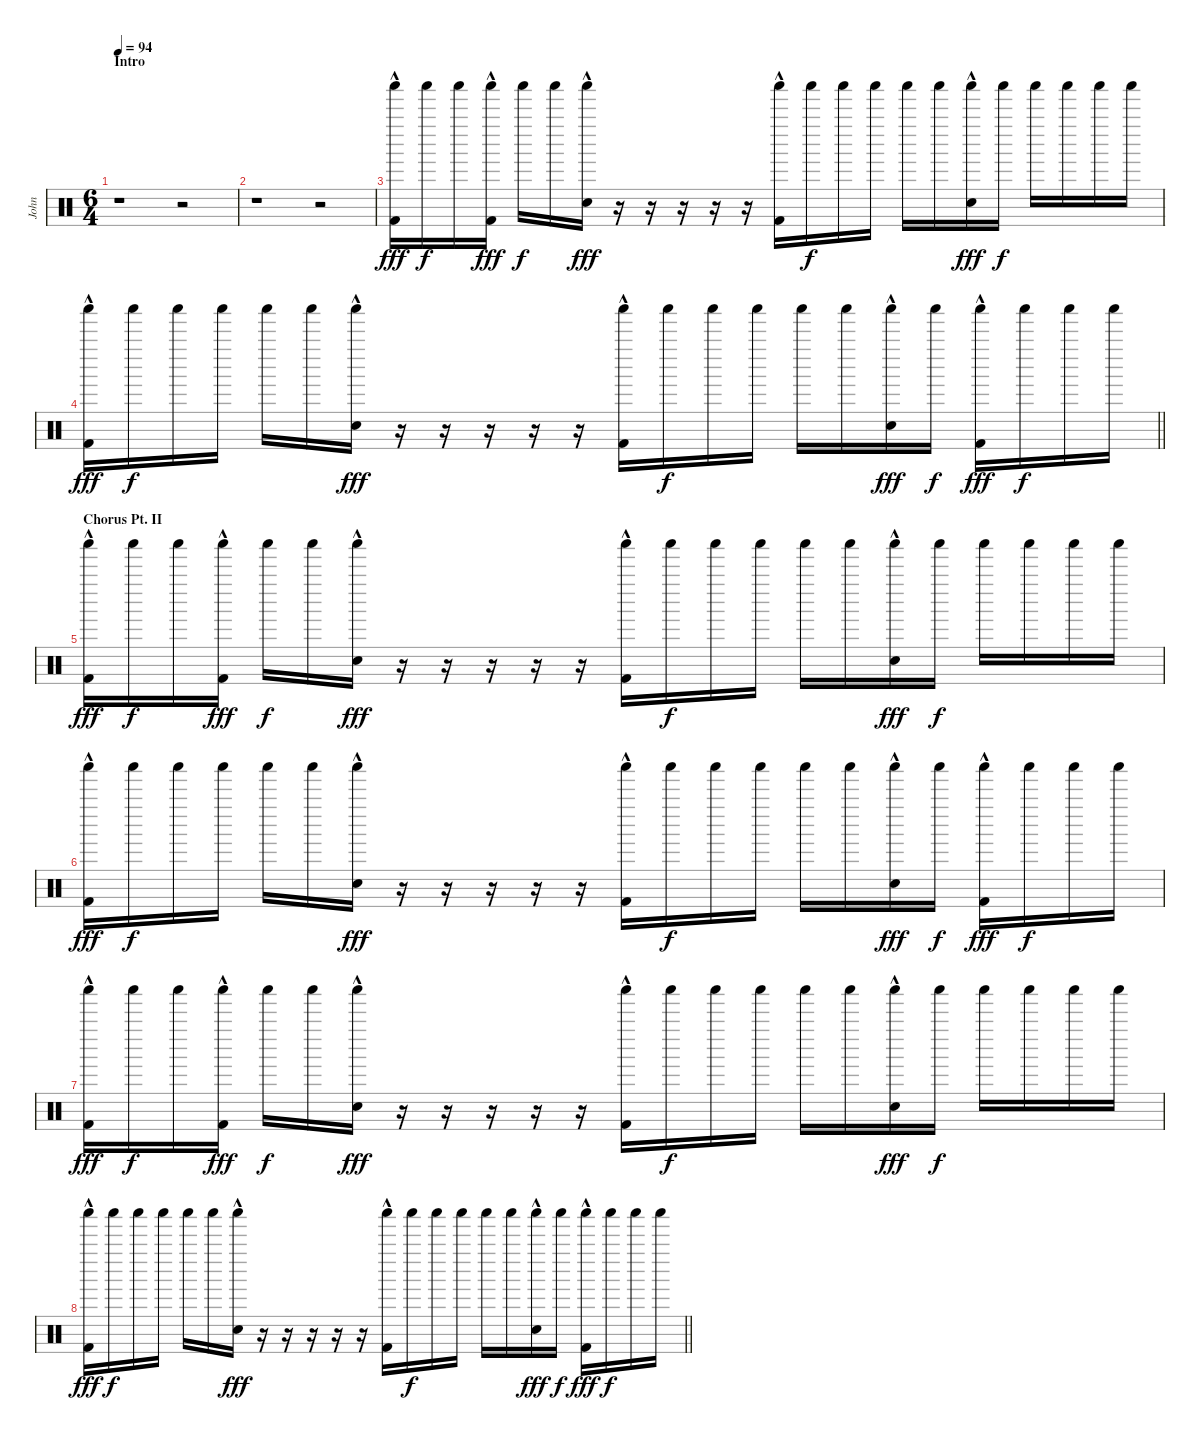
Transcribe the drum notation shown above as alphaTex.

\track ("John" "John") {instrument percussion}
\staff {score}
\articulation defaults
\ts (6 4)
\section ("" "Intro")
\tempo 94
\clef neutral
\ks c
r.1{dy fff} r.2 |
r.1 r.2 |
("Shaker (hit)" "Kick (hit) 2"{hac}).16 "Shaker (hit)".16{dy f} "Shaker (hit)".16 ("Shaker (hit)" "Kick (hit) 2"{hac}).16{dy fff} "Shaker (hit)".16{dy f} "Shaker (hit)".16 ("Shaker (hit)" "Snare (hit) 2"{hac}).16{dy fff} r.16 r.16 r.16 r.16 r.16 ("Shaker (hit)" "Kick (hit) 2"{hac}).16 "Shaker (hit)".16{dy f} "Shaker (hit)".16 "Shaker (hit)".16 "Shaker (hit)".16 "Shaker (hit)".16 ("Shaker (hit)" "Snare (hit) 2"{hac}).16{dy fff} "Shaker (hit)".16{dy f} "Shaker (hit)".16 "Shaker (hit)".16 "Shaker (hit)".16 "Shaker (hit)".16 |
\barLineRight lightlight
("Shaker (hit)" "Kick (hit) 2"{hac}).16{dy fff} "Shaker (hit)".16{dy f} "Shaker (hit)".16 "Shaker (hit)".16 "Shaker (hit)".16 "Shaker (hit)".16 ("Shaker (hit)" "Snare (hit) 2"{hac}).16{dy fff} r.16 r.16 r.16 r.16 r.16 ("Shaker (hit)" "Kick (hit) 2"{hac}).16 "Shaker (hit)".16{dy f} "Shaker (hit)".16 "Shaker (hit)".16 "Shaker (hit)".16 "Shaker (hit)".16 ("Shaker (hit)" "Snare (hit) 2"{hac}).16{dy fff} "Shaker (hit)".16{dy f} ("Shaker (hit)" "Kick (hit) 2"{hac}).16{dy fff} "Shaker (hit)".16{dy f} "Shaker (hit)".16 "Shaker (hit)".16 |
\section ("" "Chorus Pt. II")
("Shaker (hit)" "Kick (hit) 2"{hac}).16{dy fff} "Shaker (hit)".16{dy f} "Shaker (hit)".16 ("Shaker (hit)" "Kick (hit) 2"{hac}).16{dy fff} "Shaker (hit)".16{dy f} "Shaker (hit)".16 ("Shaker (hit)" "Snare (hit) 2"{hac}).16{dy fff} r.16 r.16 r.16 r.16 r.16 ("Shaker (hit)" "Kick (hit) 2"{hac}).16 "Shaker (hit)".16{dy f} "Shaker (hit)".16 "Shaker (hit)".16 "Shaker (hit)".16 "Shaker (hit)".16 ("Shaker (hit)" "Snare (hit) 2"{hac}).16{dy fff} "Shaker (hit)".16{dy f} "Shaker (hit)".16 "Shaker (hit)".16 "Shaker (hit)".16 "Shaker (hit)".16 |
("Shaker (hit)" "Kick (hit) 2"{hac}).16{dy fff} "Shaker (hit)".16{dy f} "Shaker (hit)".16 "Shaker (hit)".16 "Shaker (hit)".16 "Shaker (hit)".16 ("Shaker (hit)" "Snare (hit) 2"{hac}).16{dy fff} r.16 r.16 r.16 r.16 r.16 ("Shaker (hit)" "Kick (hit) 2"{hac}).16 "Shaker (hit)".16{dy f} "Shaker (hit)".16 "Shaker (hit)".16 "Shaker (hit)".16 "Shaker (hit)".16 ("Shaker (hit)" "Snare (hit) 2"{hac}).16{dy fff} "Shaker (hit)".16{dy f} ("Shaker (hit)" "Kick (hit) 2"{hac}).16{dy fff} "Shaker (hit)".16{dy f} "Shaker (hit)".16 "Shaker (hit)".16 |
("Shaker (hit)" "Kick (hit) 2"{hac}).16{dy fff} "Shaker (hit)".16{dy f} "Shaker (hit)".16 ("Shaker (hit)" "Kick (hit) 2"{hac}).16{dy fff} "Shaker (hit)".16{dy f} "Shaker (hit)".16 ("Shaker (hit)" "Snare (hit) 2"{hac}).16{dy fff} r.16 r.16 r.16 r.16 r.16 ("Shaker (hit)" "Kick (hit) 2"{hac}).16 "Shaker (hit)".16{dy f} "Shaker (hit)".16 "Shaker (hit)".16 "Shaker (hit)".16 "Shaker (hit)".16 ("Shaker (hit)" "Snare (hit) 2"{hac}).16{dy fff} "Shaker (hit)".16{dy f} "Shaker (hit)".16 "Shaker (hit)".16 "Shaker (hit)".16 "Shaker (hit)".16 |
\barLineRight lightlight
("Shaker (hit)" "Kick (hit) 2"{hac}).16{dy fff} "Shaker (hit)".16{dy f} "Shaker (hit)".16 "Shaker (hit)".16 "Shaker (hit)".16 "Shaker (hit)".16 ("Shaker (hit)" "Snare (hit) 2"{hac}).16{dy fff} r.16 r.16 r.16 r.16 r.16 ("Shaker (hit)" "Kick (hit) 2"{hac}).16 "Shaker (hit)".16{dy f} "Shaker (hit)".16 "Shaker (hit)".16 "Shaker (hit)".16 "Shaker (hit)".16 ("Shaker (hit)" "Snare (hit) 2"{hac}).16{dy fff} "Shaker (hit)".16{dy f} ("Shaker (hit)" "Kick (hit) 2"{hac}).16{dy fff} "Shaker (hit)".16{dy f} "Shaker (hit)".16 "Shaker (hit)".16
